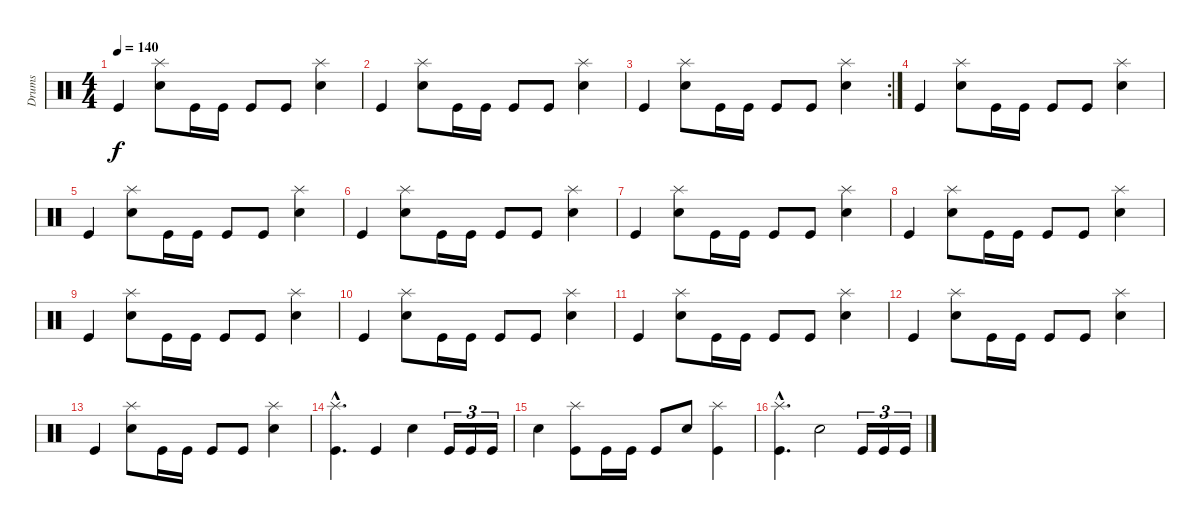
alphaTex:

\track ("Drums" "Drums") {instrument percussion}
\staff {score}
\articulation defaults
\ts (4 4)
\tempo 140
\clef neutral
\ks c "Kick (hit)".4{dy f}
("Splash (hit)" "Electric Snare (hit)").8 "Kick (hit)".16 "Kick (hit)".16 "Kick (hit)".8 "Kick (hit)".8 ("Splash (hit)" "Metronome (bell)").4 |
"Kick (hit)".4 ("Splash (hit)" "Electric Snare (hit)").8 "Kick (hit)".16 "Kick (hit)".16 "Kick (hit)".8 "Kick (hit)".8 ("Splash (hit)" "Metronome (bell)").4 |
\rc 2 "Kick (hit)".4
("Splash (hit)" "Electric Snare (hit)").8 "Kick (hit)".16 "Kick (hit)".16 "Kick (hit)".8 "Kick (hit)".8 ("Splash (hit)" "Metronome (bell)").4 |
"Kick (hit)".4 ("Splash (hit)" "Electric Snare (hit)").8 "Kick (hit)".16 "Kick (hit)".16 "Kick (hit)".8 "Kick (hit)".8 ("Splash (hit)" "Metronome (bell)").4 |
"Kick (hit)".4 ("Splash (hit)" "Electric Snare (hit)").8 "Kick (hit)".16 "Kick (hit)".16 "Kick (hit)".8 "Kick (hit)".8 ("Splash (hit)" "Metronome (bell)").4 |
"Kick (hit)".4 ("Splash (hit)" "Electric Snare (hit)").8 "Kick (hit)".16 "Kick (hit)".16 "Kick (hit)".8 "Kick (hit)".8 ("Splash (hit)" "Metronome (bell)").4 |
"Kick (hit)".4 ("Splash (hit)" "Electric Snare (hit)").8 "Kick (hit)".16 "Kick (hit)".16 "Kick (hit)".8 "Kick (hit)".8 ("Splash (hit)" "Metronome (bell)").4 |
"Kick (hit)".4 ("Splash (hit)" "Electric Snare (hit)").8 "Kick (hit)".16 "Kick (hit)".16 "Kick (hit)".8 "Kick (hit)".8 ("Splash (hit)" "Metronome (bell)").4 |
"Kick (hit)".4 ("Splash (hit)" "Electric Snare (hit)").8 "Kick (hit)".16 "Kick (hit)".16 "Kick (hit)".8 "Kick (hit)".8 ("Splash (hit)" "Metronome (bell)").4 |
"Kick (hit)".4 ("Splash (hit)" "Electric Snare (hit)").8 "Kick (hit)".16 "Kick (hit)".16 "Kick (hit)".8 "Kick (hit)".8 ("Splash (hit)" "Metronome (bell)").4 |
"Kick (hit)".4 ("Splash (hit)" "Electric Snare (hit)").8 "Kick (hit)".16 "Kick (hit)".16 "Kick (hit)".8 "Kick (hit)".8 ("Splash (hit)" "Metronome (bell)").4 |
"Kick (hit)".4 ("Splash (hit)" "Electric Snare (hit)").8 "Kick (hit)".16 "Kick (hit)".16 "Kick (hit)".8 "Kick (hit)".8 ("Splash (hit)" "Metronome (bell)").4 |
"Kick (hit)".4 ("Splash (hit)" "Electric Snare (hit)").8 "Kick (hit)".16 "Kick (hit)".16 "Kick (hit)".8 "Kick (hit)".8 ("Splash (hit)" "Metronome (bell)").4 |
("Splash (hit)"{hac} "Kick (hit)"{hac}).4{d} "Kick (hit)".4 "Electric Snare (hit)".4 "Kick (hit)".16{tu (3 2)} "Kick (hit)".16{tu (3 2)} "Kick (hit)".16{tu (3 2)} |
"Electric Snare (hit)".4 ("Splash (hit)" "Kick (hit)").8 "Kick (hit)".16 "Kick (hit)".16 "Kick (hit)".8 "Electric Snare (hit)".8 ("Splash (hit)" "Kick (hit)").4 |
("Splash (hit)"{hac} "Kick (hit)"{hac}).4{d} "Electric Snare (hit)".2 "Kick (hit)".16{tu (3 2)} "Kick (hit)".16{tu (3 2)} "Kick (hit)".16{tu (3 2)}
